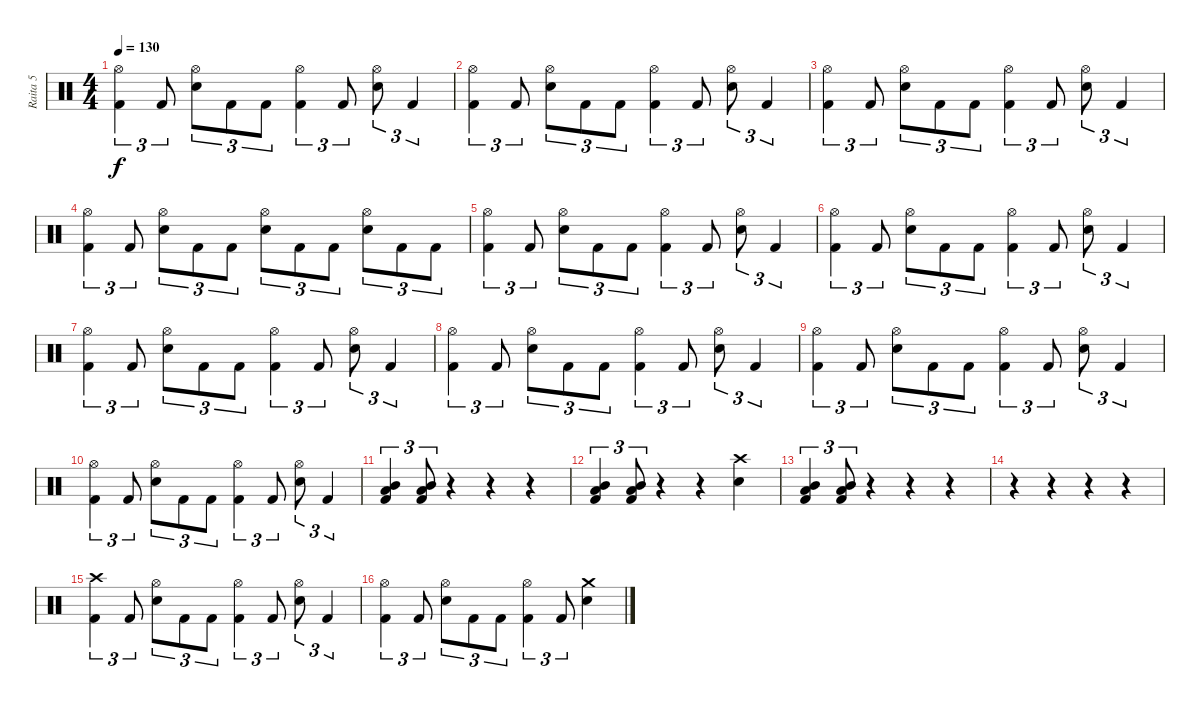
\track ("Raita 5" "Raita 5") {instrument percussion}
\staff {score}
\articulation defaults
\ts (4 4)
\tempo 130
\clef neutral
\ks c
("Hi-Hat (open)" "Kick (hit) 2").4{tu (3 2) dy f} "Kick (hit) 2".8{tu (3 2)} ("Hi-Hat (open)" "Snare (hit) 2").8{tu (3 2)} "Kick (hit) 2".8{tu (3 2)} "Kick (hit) 2".8{tu (3 2)} ("Hi-Hat (open)" "Kick (hit) 2").4{tu (3 2)} "Kick (hit) 2".8{tu (3 2)} ("Hi-Hat (open)" "Snare (hit) 2").8{tu (3 2)} "Kick (hit) 2".4{tu (3 2)} |
("Hi-Hat (open)" "Kick (hit) 2").4{tu (3 2)} "Kick (hit) 2".8{tu (3 2)} ("Hi-Hat (open)" "Snare (hit) 2").8{tu (3 2)} "Kick (hit) 2".8{tu (3 2)} "Kick (hit) 2".8{tu (3 2)} ("Hi-Hat (open)" "Kick (hit) 2").4{tu (3 2)} "Kick (hit) 2".8{tu (3 2)} ("Hi-Hat (open)" "Snare (hit) 2").8{tu (3 2)} "Kick (hit) 2".4{tu (3 2)} |
("Hi-Hat (open)" "Kick (hit) 2").4{tu (3 2)} "Kick (hit) 2".8{tu (3 2)} ("Hi-Hat (open)" "Snare (hit) 2").8{tu (3 2)} "Kick (hit) 2".8{tu (3 2)} "Kick (hit) 2".8{tu (3 2)} ("Hi-Hat (open)" "Kick (hit) 2").4{tu (3 2)} "Kick (hit) 2".8{tu (3 2)} ("Hi-Hat (open)" "Snare (hit) 2").8{tu (3 2)} "Kick (hit) 2".4{tu (3 2)} |
("Hi-Hat (open)" "Kick (hit) 2").4{tu (3 2)} "Kick (hit) 2".8{tu (3 2)} ("Hi-Hat (open)" "Snare (hit) 2").8{tu (3 2)} "Kick (hit) 2".8{tu (3 2)} "Kick (hit) 2".8{tu (3 2)} ("Hi-Hat (open)" "Snare (hit) 2").8{tu (3 2)} "Kick (hit) 2".8{tu (3 2)} "Kick (hit) 2".8{tu (3 2)} ("Hi-Hat (open)" "Snare (hit) 2").8{tu (3 2)} "Kick (hit) 2".8{tu (3 2)} "Kick (hit) 2".8{tu (3 2)} |
("Hi-Hat (open)" "Kick (hit) 2").4{tu (3 2)} "Kick (hit) 2".8{tu (3 2)} ("Hi-Hat (open)" "Snare (hit) 2").8{tu (3 2)} "Kick (hit) 2".8{tu (3 2)} "Kick (hit) 2".8{tu (3 2)} ("Hi-Hat (open)" "Kick (hit) 2").4{tu (3 2)} "Kick (hit) 2".8{tu (3 2)} ("Hi-Hat (open)" "Snare (hit) 2").8{tu (3 2)} "Kick (hit) 2".4{tu (3 2)} |
("Hi-Hat (open)" "Kick (hit) 2").4{tu (3 2)} "Kick (hit) 2".8{tu (3 2)} ("Hi-Hat (open)" "Snare (hit) 2").8{tu (3 2)} "Kick (hit) 2".8{tu (3 2)} "Kick (hit) 2".8{tu (3 2)} ("Hi-Hat (open)" "Kick (hit) 2").4{tu (3 2)} "Kick (hit) 2".8{tu (3 2)} ("Hi-Hat (open)" "Snare (hit) 2").8{tu (3 2)} "Kick (hit) 2".4{tu (3 2)} |
("Hi-Hat (open)" "Kick (hit) 2").4{tu (3 2)} "Kick (hit) 2".8{tu (3 2)} ("Hi-Hat (open)" "Snare (hit) 2").8{tu (3 2)} "Kick (hit) 2".8{tu (3 2)} "Kick (hit) 2".8{tu (3 2)} ("Hi-Hat (open)" "Kick (hit) 2").4{tu (3 2)} "Kick (hit) 2".8{tu (3 2)} ("Hi-Hat (open)" "Snare (hit) 2").8{tu (3 2)} "Kick (hit) 2".4{tu (3 2)} |
("Hi-Hat (open)" "Kick (hit) 2").4{tu (3 2)} "Kick (hit) 2".8{tu (3 2)} ("Hi-Hat (open)" "Snare (hit) 2").8{tu (3 2)} "Kick (hit) 2".8{tu (3 2)} "Kick (hit) 2".8{tu (3 2)} ("Hi-Hat (open)" "Kick (hit) 2").4{tu (3 2)} "Kick (hit) 2".8{tu (3 2)} ("Hi-Hat (open)" "Snare (hit) 2").8{tu (3 2)} "Kick (hit) 2".4{tu (3 2)} |
("Hi-Hat (open)" "Kick (hit) 2").4{tu (3 2)} "Kick (hit) 2".8{tu (3 2)} ("Hi-Hat (open)" "Snare (hit) 2").8{tu (3 2)} "Kick (hit) 2".8{tu (3 2)} "Kick (hit) 2".8{tu (3 2)} ("Hi-Hat (open)" "Kick (hit) 2").4{tu (3 2)} "Kick (hit) 2".8{tu (3 2)} ("Hi-Hat (open)" "Snare (hit) 2").8{tu (3 2)} "Kick (hit) 2".4{tu (3 2)} |
("Hi-Hat (open)" "Kick (hit) 2").4{tu (3 2)} "Kick (hit) 2".8{tu (3 2)} ("Hi-Hat (open)" "Snare (hit) 2").8{tu (3 2)} "Kick (hit) 2".8{tu (3 2)} "Kick (hit) 2".8{tu (3 2)} ("Hi-Hat (open)" "Kick (hit) 2").4{tu (3 2)} "Kick (hit) 2".8{tu (3 2)} ("Hi-Hat (open)" "Snare (hit) 2").8{tu (3 2)} "Kick (hit) 2".4{tu (3 2)} |
("Mid Tom (hit)" "Low Tom (hit)" "Kick (hit) 2").4{tu (3 2)} ("Mid Tom (hit)" "Low Tom (hit)" "Kick (hit) 2").8{tu (3 2)} r.4 r.4 r.4 |
("Mid Tom (hit)" "Low Tom (hit)" "Kick (hit) 2").4{tu (3 2)} ("Mid Tom (hit)" "Low Tom (hit)" "Kick (hit) 2").8{tu (3 2)} r.4 r.4 ("Crash high (hit)" "Snare (hit) 2").4 |
("Mid Tom (hit)" "Low Tom (hit)" "Kick (hit) 2").4{tu (3 2)} ("Mid Tom (hit)" "Low Tom (hit)" "Kick (hit) 2").8{tu (3 2)} r.4 r.4 r.4 |
r.4 r.4 r.4 r.4 |
("Crash high (hit)" "Kick (hit) 2").4{tu (3 2)} "Kick (hit) 2".8{tu (3 2)} ("Hi-Hat (open)" "Snare (hit) 2").8{tu (3 2)} "Kick (hit) 2".8{tu (3 2)} "Kick (hit) 2".8{tu (3 2)} ("Hi-Hat (open)" "Kick (hit) 2").4{tu (3 2)} "Kick (hit) 2".8{tu (3 2)} ("Hi-Hat (open)" "Snare (hit) 2").8{tu (3 2)} "Kick (hit) 2".4{tu (3 2)} |
("Hi-Hat (open)" "Kick (hit) 2").4{tu (3 2)} "Kick (hit) 2".8{tu (3 2)} ("Hi-Hat (open)" "Snare (hit) 2").8{tu (3 2)} "Kick (hit) 2".8{tu (3 2)} "Kick (hit) 2".8{tu (3 2)} ("Hi-Hat (open)" "Kick (hit) 2").4{tu (3 2)} "Kick (hit) 2".8{tu (3 2)} ("Crash medium (hit)" "Snare (hit) 2").4
